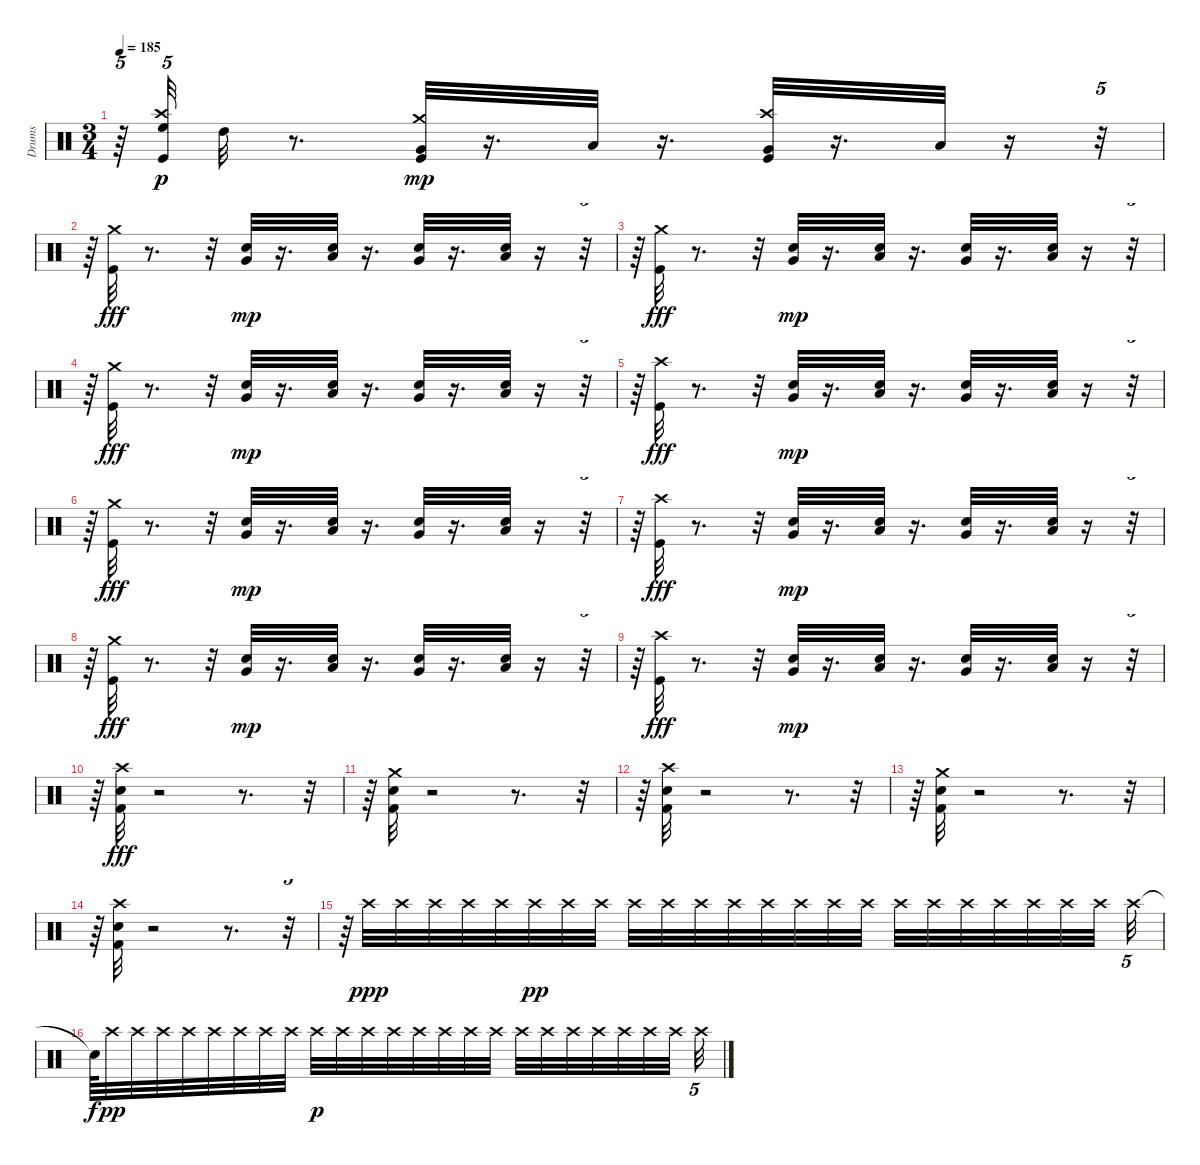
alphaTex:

\track ("Drums" "Drums") {instrument percussion}
\staff {score}
\articulation defaults
\ts (3 4)
\tempo 185
\clef neutral
\ks c
r.64{tu (5 4) dy mp} ("Kick (hit)" "Crash high (hit)" "High Floor Tom (hit)").32{tu (5 4) dy p} "High Tom (hit)".32 r.8{d} ("Kick (hit)" "Crash medium (hit)" "Very Low Tom (hit)").32{dy mp} r.16{d} "Low Floor Tom (hit)".32 r.16{d} ("Kick (hit)" "Crash high (hit)" "Very Low Tom (hit)").32 r.16{d} "Low Floor Tom (hit)".32 r.16 r.32{tu (5 4)} |
r.64 ("Crash medium (hit)" "Kick (hit)").32{dy fff} r.8{d} r.32 ("Electric Snare (hit)" "Very Low Tom (hit)").32{dy mp} r.16{d} ("Electric Snare (hit)" "Low Floor Tom (hit)").32 r.16{d} ("Electric Snare (hit)" "Very Low Tom (hit)").32 r.16{d} ("Electric Snare (hit)" "Low Floor Tom (hit)").32 r.16 r.32{tu (5 4)} |
r.64 ("Crash medium (hit)" "Kick (hit)").32{dy fff} r.8{d} r.32 ("Electric Snare (hit)" "Very Low Tom (hit)").32{dy mp} r.16{d} ("Electric Snare (hit)" "Low Floor Tom (hit)").32 r.16{d} ("Electric Snare (hit)" "Very Low Tom (hit)").32 r.16{d} ("Electric Snare (hit)" "Low Floor Tom (hit)").32 r.16 r.32{tu (5 4)} |
r.64 ("Crash medium (hit)" "Kick (hit)").32{dy fff} r.8{d} r.32 ("Electric Snare (hit)" "Very Low Tom (hit)").32{dy mp} r.16{d} ("Electric Snare (hit)" "Low Floor Tom (hit)").32 r.16{d} ("Electric Snare (hit)" "Very Low Tom (hit)").32 r.16{d} ("Electric Snare (hit)" "Low Floor Tom (hit)").32 r.16 r.32{tu (5 4)} |
r.64 ("Crash high (hit)" "Kick (hit)").32{dy fff} r.8{d} r.32 ("Electric Snare (hit)" "Very Low Tom (hit)").32{dy mp} r.16{d} ("Electric Snare (hit)" "Low Floor Tom (hit)").32 r.16{d} ("Electric Snare (hit)" "Very Low Tom (hit)").32 r.16{d} ("Electric Snare (hit)" "Low Floor Tom (hit)").32 r.16 r.32{tu (5 4)} |
r.64 ("Crash medium (hit)" "Kick (hit)").32{dy fff} r.8{d} r.32 ("Electric Snare (hit)" "Very Low Tom (hit)").32{dy mp} r.16{d} ("Electric Snare (hit)" "Low Floor Tom (hit)").32 r.16{d} ("Electric Snare (hit)" "Very Low Tom (hit)").32 r.16{d} ("Electric Snare (hit)" "Low Floor Tom (hit)").32 r.16 r.32{tu (5 4)} |
r.64 ("Crash high (hit)" "Kick (hit)").32{dy fff} r.8{d} r.32 ("Electric Snare (hit)" "Very Low Tom (hit)").32{dy mp} r.16{d} ("Electric Snare (hit)" "Low Floor Tom (hit)").32 r.16{d} ("Electric Snare (hit)" "Very Low Tom (hit)").32 r.16{d} ("Electric Snare (hit)" "Low Floor Tom (hit)").32 r.16 r.32{tu (5 4)} |
r.64 ("Crash medium (hit)" "Kick (hit)").32{dy fff} r.8{d} r.32 ("Electric Snare (hit)" "Very Low Tom (hit)").32{dy mp} r.16{d} ("Electric Snare (hit)" "Low Floor Tom (hit)").32 r.16{d} ("Electric Snare (hit)" "Very Low Tom (hit)").32 r.16{d} ("Electric Snare (hit)" "Low Floor Tom (hit)").32 r.16 r.32{tu (5 4)} |
r.64 ("Crash high (hit)" "Kick (hit)").32{dy fff} r.8{d} r.32 ("Electric Snare (hit)" "Very Low Tom (hit)").32{dy mp} r.16{d} ("Electric Snare (hit)" "Low Floor Tom (hit)").32 r.16{d} ("Electric Snare (hit)" "Very Low Tom (hit)").32 r.16{d} ("Electric Snare (hit)" "Low Floor Tom (hit)").32 r.16 r.32{tu (5 4)} |
r.64 ("Electric Snare (hit)" "Crash high (hit)" "Kick (hit) 2").32{dy fff} r.2 r.8{d} r.32{tu (5 4)} |
r.64 ("Electric Snare (hit)" "Crash medium (hit)" "Kick (hit) 2").32 r.2 r.8{d} r.32{tu (5 4)} |
r.64 ("Electric Snare (hit)" "Crash high (hit)" "Kick (hit) 2").32 r.2 r.8{d} r.32{tu (5 4)} |
r.64 ("Electric Snare (hit)" "Crash medium (hit)" "Kick (hit) 2").32 r.2 r.8{d} r.32{tu (5 4)} |
r.64 ("Crash high (hit)" "Electric Snare (hit)" "Kick (hit) 2").32 r.2 r.8{d} r.32{tu (5 4)} |
r.64 "Crash high (hit)".32{dy ppp} "Crash high (hit)".32 "Crash high (hit)".32 "Crash high (hit)".32 "Crash high (hit)".32 "Crash high (hit)".32{dy pp} "Crash high (hit)".32 "Crash high (hit)".32 "Crash high (hit)".32 "Crash high (hit)".32 "Crash high (hit)".32 "Crash high (hit)".32 "Crash high (hit)".32 "Crash high (hit)".32 "Crash high (hit)".32 "Crash high (hit)".32 "Crash high (hit)".32 "Crash high (hit)".32 "Crash high (hit)".32 "Crash high (hit)".32 "Crash high (hit)".32 "Crash high (hit)".32 "Crash high (hit)".32{beam splitsecondary} "Crash high (hit)".32{tu (5 4)} |
"Snare (hit)"{t}.64{dy f} "Crash high (hit)".32{dy pp} "Crash high (hit)".32 "Crash high (hit)".32 "Crash high (hit)".32 "Crash high (hit)".32 "Crash high (hit)".32 "Crash high (hit)".32 "Crash high (hit)".32 "Crash high (hit)".32{dy p} "Crash high (hit)".32 "Crash high (hit)".32 "Crash high (hit)".32 "Crash high (hit)".32 "Crash high (hit)".32 "Crash high (hit)".32 "Crash high (hit)".32 "Crash high (hit)".32 "Crash high (hit)".32 "Crash high (hit)".32 "Crash high (hit)".32 "Crash high (hit)".32 "Crash high (hit)".32 "Crash high (hit)".32{beam splitsecondary} "Crash high (hit)".32{tu (5 4)}
